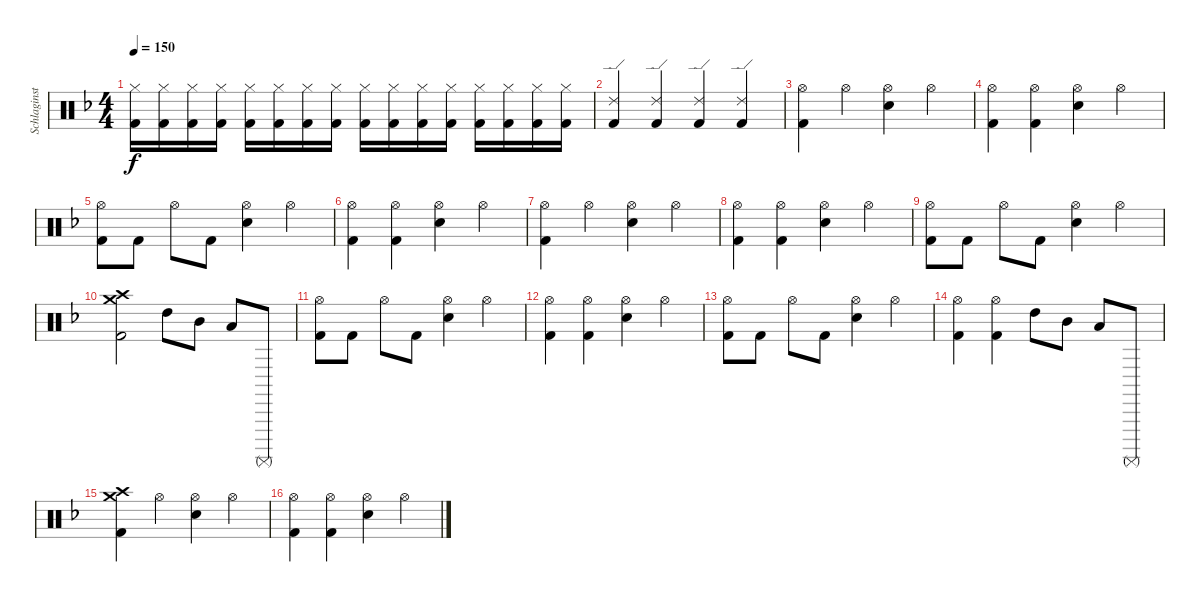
\track ("Schlaginstrumente - Auswahl" "Schlaginst") {instrument percussion}
\staff {score}
\articulation defaults
\ts (4 4)
\tempo 150
\clef neutral
\ks f
("Kick (hit) 2" "Hi-Hat (closed)").16{dy f} ("Hi-Hat (closed)" "Kick (hit) 2").16 ("Hi-Hat (closed)" "Kick (hit) 2").16 ("Hi-Hat (closed)" "Kick (hit) 2").16 ("Hi-Hat (closed)" "Kick (hit) 2").16 ("Hi-Hat (closed)" "Kick (hit) 2").16 ("Hi-Hat (closed)" "Kick (hit) 2").16 ("Hi-Hat (closed)" "Kick (hit) 2").16 ("Hi-Hat (closed)" "Kick (hit) 2").16 ("Hi-Hat (closed)" "Kick (hit) 2").16 ("Hi-Hat (closed)" "Kick (hit) 2").16 ("Hi-Hat (closed)" "Kick (hit) 2").16 ("Hi-Hat (closed)" "Kick (hit) 2").16 ("Hi-Hat (closed)" "Kick (hit) 2").16 ("Hi-Hat (closed)" "Kick (hit) 2").16 ("Hi-Hat (closed)" "Kick (hit) 2").16 |
("Ride (edge) 2" "Kick (hit) 2").4 ("Ride (edge) 2" "Kick (hit) 2").4 ("Ride (edge) 2" "Kick (hit) 2").4 ("Ride (edge) 2" "Kick (hit) 2").4 |
("Kick (hit) 2" "Hi-Hat (open)").4 "Hi-Hat (open)".4 ("Hi-Hat (open)" "Snare (hit) 2").4 "Hi-Hat (open)".4 |
("Kick (hit) 2" "Hi-Hat (open)").4 ("Kick (hit) 2" "Hi-Hat (open)").4 ("Hi-Hat (open)" "Snare (hit) 2").4 "Hi-Hat (open)".4 |
("Hi-Hat (open)" "Kick (hit) 2").8 "Kick (hit) 2".8 "Hi-Hat (open)".8 "Kick (hit) 2".8 ("Hi-Hat (open)" "Snare (hit) 2").4 "Hi-Hat (open)".4 |
("Kick (hit) 2" "Hi-Hat (open)").4 ("Kick (hit) 2" "Hi-Hat (open)").4 ("Hi-Hat (open)" "Snare (hit) 2").4 "Hi-Hat (open)".4 |
("Kick (hit) 2" "Hi-Hat (open)").4 "Hi-Hat (open)".4 ("Hi-Hat (open)" "Snare (hit) 2").4 "Hi-Hat (open)".4 |
("Kick (hit) 2" "Hi-Hat (open)").4 ("Kick (hit) 2" "Hi-Hat (open)").4 ("Hi-Hat (open)" "Snare (hit) 2").4 "Hi-Hat (open)".4 |
("Hi-Hat (open)" "Kick (hit) 2").8 "Kick (hit) 2".8 "Hi-Hat (open)".8 "Kick (hit) 2".8 ("Hi-Hat (open)" "Snare (hit) 2").4 "Hi-Hat (open)".4 |
("Crash medium (hit)" "Crash high (hit)" "Kick (hit) 2").2 "High Tom (hit)".8 "Mid Tom (hit)".8 "Low Tom (hit)".8 "Surdo (mute)".8 |
("Hi-Hat (open)" "Kick (hit) 2").8 "Kick (hit) 2".8 "Hi-Hat (open)".8 "Kick (hit) 2".8 ("Hi-Hat (open)" "Snare (hit) 2").4 "Hi-Hat (open)".4 |
("Kick (hit) 2" "Hi-Hat (open)").4 ("Kick (hit) 2" "Hi-Hat (open)").4 ("Hi-Hat (open)" "Snare (hit) 2").4 "Hi-Hat (open)".4 |
("Hi-Hat (open)" "Kick (hit) 2").8 "Kick (hit) 2".8 "Hi-Hat (open)".8 "Kick (hit) 2".8 ("Hi-Hat (open)" "Snare (hit) 2").4 "Hi-Hat (open)".4 |
("Kick (hit) 2" "Hi-Hat (open)").4 ("Kick (hit) 2" "Hi-Hat (open)").4 "High Tom (hit)".8 "Mid Tom (hit)".8 "Low Tom (hit)".8 "Surdo (mute)".8 |
("Kick (hit) 2" "Crash medium (hit)" "Crash high (hit)").4 "Hi-Hat (open)".4 ("Hi-Hat (open)" "Snare (hit) 2").4 "Hi-Hat (open)".4 |
("Kick (hit) 2" "Hi-Hat (open)").4 ("Kick (hit) 2" "Hi-Hat (open)").4 ("Hi-Hat (open)" "Snare (hit) 2").4 "Hi-Hat (open)".4
